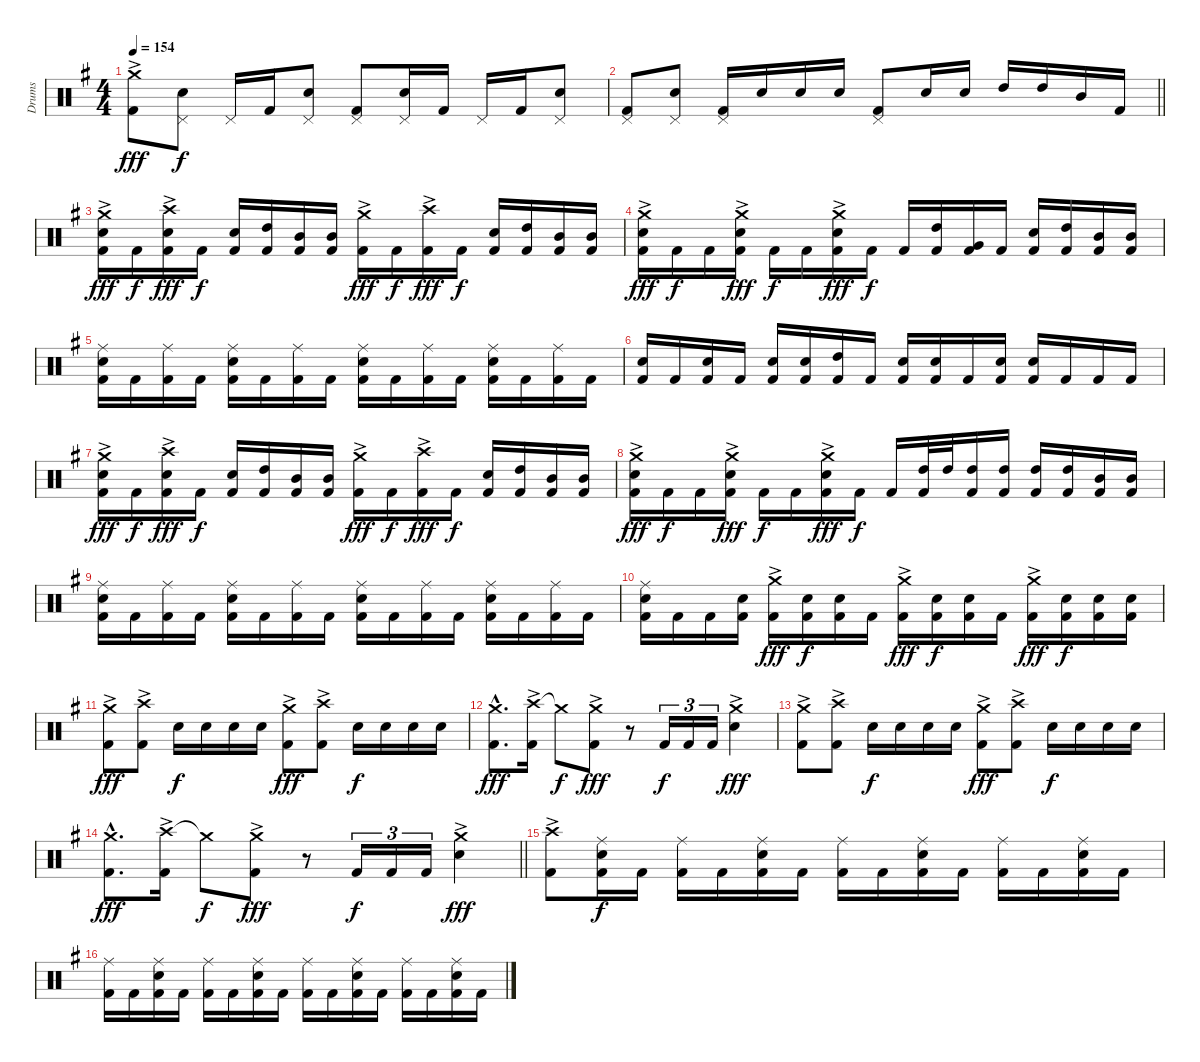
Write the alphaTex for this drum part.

\track ("Drums" "Drums") {instrument percussion}
\staff {score}
\articulation defaults
\ts (4 4)
\tempo 154
\clef neutral
\ks g
("Crash medium (hit)"{ac} "Kick (hit) 2"{ac}).8{dy fff} ("Pedal Hi-Hat (hit)" "Snare (hit) 2").8{dy f} "Pedal Hi-Hat (hit)".16 "Kick (hit) 2".16 ("Pedal Hi-Hat (hit)" "Snare (hit) 2").8 ("Pedal Hi-Hat (hit)" "Kick (hit) 2").8 ("Pedal Hi-Hat (hit)" "Snare (hit) 2").16 "Kick (hit) 2".16 "Pedal Hi-Hat (hit)".16 "Kick (hit) 2".16 ("Pedal Hi-Hat (hit)" "Snare (hit) 2").8 |
\barLineRight lightlight
("Pedal Hi-Hat (hit)" "Kick (hit) 2").8 ("Pedal Hi-Hat (hit)" "Snare (hit) 2").8 ("Pedal Hi-Hat (hit)" "Kick (hit) 2").16 "Snare (hit) 2".16 "Snare (hit) 2".16 "Snare (hit) 2".16 ("Pedal Hi-Hat (hit)" "Kick (hit) 2").8 "Snare (hit) 2".16 "Snare (hit) 2".16 "High Tom (hit)".16 "High Tom (hit)".16 "Mid Tom (hit)".16 "Kick (hit) 2".16 |
("Crash medium (hit)"{ac} "Snare (hit) 2" "Kick (hit) 2"{ac}).16{dy fff} "Kick (hit) 2".16{dy f} ("Crash high (hit)"{ac} "Snare (hit) 2" "Kick (hit) 2"{ac}).16{dy fff} "Kick (hit) 2".16{dy f} ("Snare (hit) 2" "Kick (hit) 2").16 ("High Tom (hit)" "Kick (hit) 2").16 ("Mid Tom (hit)" "Kick (hit) 2").16 ("Mid Tom (hit)" "Kick (hit) 2").16 ("Crash medium (hit)"{ac} "Kick (hit) 2"{ac}).16{dy fff} "Kick (hit) 2".16{dy f} ("Crash high (hit)"{ac} "Kick (hit) 2"{ac}).16{dy fff} "Kick (hit) 2".16{dy f} ("Snare (hit) 2" "Kick (hit) 2").16 ("High Tom (hit)" "Kick (hit) 2").16 ("Mid Tom (hit)" "Kick (hit) 2").16 ("Mid Tom (hit)" "Kick (hit) 2").16 |
("Crash medium (hit)"{ac} "Snare (hit) 2" "Kick (hit) 2"{ac}).16{dy fff} "Kick (hit) 2".16{dy f} "Kick (hit) 2".16 ("Crash medium (hit)"{ac} "Snare (hit) 2"{ac} "Kick (hit) 2"{ac}).16{dy fff} "Kick (hit) 2".16{dy f} "Kick (hit) 2".16 ("Crash medium (hit)"{ac} "Snare (hit) 2"{ac} "Kick (hit) 2").16{dy fff} "Kick (hit) 2".16{dy f} "Kick (hit) 2".16 ("High Tom (hit)" "Kick (hit) 2").16 ("Very Low Tom (hit)" "Kick (hit) 2").16 "Kick (hit) 2".16 ("Snare (hit) 2" "Kick (hit) 2").16 ("High Tom (hit)" "Kick (hit) 2").16 ("Mid Tom (hit)" "Kick (hit) 2").16 ("Mid Tom (hit)" "Kick (hit) 2").16 |
("Ride (middle)" "Snare (hit) 2" "Kick (hit) 2").16 "Kick (hit) 2".16 ("Ride (middle)" "Kick (hit) 2").16 "Kick (hit) 2".16 ("Ride (middle)" "Snare (hit) 2" "Kick (hit) 2").16 "Kick (hit) 2".16 ("Ride (middle)" "Kick (hit) 2").16 "Kick (hit) 2".16 ("Ride (middle)" "Snare (hit) 2" "Kick (hit) 2").16 "Kick (hit) 2".16 ("Ride (middle)" "Kick (hit) 2").16 "Kick (hit) 2".16 ("Ride (middle)" "Snare (hit) 2" "Kick (hit) 2").16 "Kick (hit) 2".16 ("Ride (middle)" "Kick (hit) 2").16 "Kick (hit) 2".16 |
("Snare (hit) 2" "Kick (hit) 2").16 "Kick (hit) 2".16 ("Snare (hit) 2" "Kick (hit) 2").16 "Kick (hit) 2".16 ("Snare (hit) 2" "Kick (hit) 2").16 ("Snare (hit) 2" "Kick (hit) 2").16 ("High Tom (hit)" "Kick (hit) 2").16 "Kick (hit) 2".16 ("Snare (hit) 2" "Kick (hit) 2").16 ("Snare (hit) 2" "Kick (hit) 2").16 "Kick (hit) 2".16 ("Snare (hit) 2" "Kick (hit) 2").16 ("Snare (hit) 2" "Kick (hit) 2").16 "Kick (hit) 2".16 "Kick (hit) 2".16 "Kick (hit) 2".16 |
("Crash medium (hit)"{ac} "Snare (hit) 2" "Kick (hit) 2"{ac}).16{dy fff} "Kick (hit) 2".16{dy f} ("Crash high (hit)"{ac} "Snare (hit) 2" "Kick (hit) 2"{ac}).16{dy fff} "Kick (hit) 2".16{dy f} ("Snare (hit) 2" "Kick (hit) 2").16 ("High Tom (hit)" "Kick (hit) 2").16 ("Mid Tom (hit)" "Kick (hit) 2").16 ("Mid Tom (hit)" "Kick (hit) 2").16 ("Crash medium (hit)"{ac} "Kick (hit) 2"{ac}).16{dy fff} "Kick (hit) 2".16{dy f} ("Crash high (hit)"{ac} "Kick (hit) 2"{ac}).16{dy fff} "Kick (hit) 2".16{dy f} ("Snare (hit) 2" "Kick (hit) 2").16 ("High Tom (hit)" "Kick (hit) 2").16 ("Mid Tom (hit)" "Kick (hit) 2").16 ("Mid Tom (hit)" "Kick (hit) 2").16 |
("Crash medium (hit)"{ac} "Snare (hit) 2" "Kick (hit) 2"{ac}).16{dy fff} "Kick (hit) 2".16{dy f} "Kick (hit) 2".16 ("Crash medium (hit)"{ac} "Snare (hit) 2"{ac} "Kick (hit) 2"{ac}).16{dy fff} "Kick (hit) 2".16{dy f} "Kick (hit) 2".16 ("Crash medium (hit)" "Snare (hit) 2"{ac} "Kick (hit) 2").16{dy fff} "Kick (hit) 2".16{dy f} "Kick (hit) 2".16 ("High Tom (hit)" "Kick (hit) 2").32 "High Tom (hit)".32 ("High Tom (hit)" "Kick (hit) 2").16 ("High Tom (hit)" "Kick (hit) 2").16 ("High Tom (hit)" "Kick (hit) 2").16 ("High Tom (hit)" "Kick (hit) 2").16 ("Mid Tom (hit)" "Kick (hit) 2").16 ("Mid Tom (hit)" "Kick (hit) 2").16 |
("Ride (middle)" "Snare (hit) 2" "Kick (hit) 2").16 "Kick (hit) 2".16 ("Ride (middle)" "Kick (hit) 2").16 "Kick (hit) 2".16 ("Ride (middle)" "Snare (hit) 2" "Kick (hit) 2").16 "Kick (hit) 2".16 ("Ride (middle)" "Kick (hit) 2").16 "Kick (hit) 2".16 ("Ride (middle)" "Snare (hit) 2" "Kick (hit) 2").16 "Kick (hit) 2".16 ("Ride (middle)" "Kick (hit) 2").16 "Kick (hit) 2".16 ("Ride (middle)" "Snare (hit) 2" "Kick (hit) 2").16 "Kick (hit) 2".16 ("Ride (middle)" "Kick (hit) 2").16 "Kick (hit) 2".16 |
("Ride (middle)" "Snare (hit) 2" "Kick (hit) 2").16 "Kick (hit) 2".16 "Kick (hit) 2".16 ("Snare (hit) 2" "Kick (hit) 2").16 ("Crash medium (hit)"{ac} "Kick (hit) 2").16{dy fff} ("Snare (hit) 2" "Kick (hit) 2").16{dy f} ("Snare (hit) 2" "Kick (hit) 2").16 "Kick (hit) 2".16 ("Crash medium (hit)"{ac} "Kick (hit) 2").16{dy fff} ("Snare (hit) 2" "Kick (hit) 2").16{dy f} ("Snare (hit) 2" "Kick (hit) 2").16 "Kick (hit) 2".16 ("Crash medium (hit)"{ac} "Kick (hit) 2").16{dy fff} ("Snare (hit) 2" "Kick (hit) 2").16{dy f} ("Snare (hit) 2" "Kick (hit) 2").16 ("Snare (hit) 2" "Kick (hit) 2").16 |
("Crash medium (hit)"{ac} "Kick (hit) 2"{ac}).8{dy fff} ("Crash high (hit)"{ac} "Kick (hit) 2"{ac}).8 "Snare (hit) 2".16{dy f} "Snare (hit) 2".16 "Snare (hit) 2".16 "Snare (hit) 2".16 ("Crash medium (hit)"{ac} "Kick (hit) 2"{ac}).8{dy fff} ("Crash high (hit)"{ac} "Kick (hit) 2"{ac}).8 "Snare (hit) 2".16{dy f} "Snare (hit) 2".16 "Snare (hit) 2".16 "Snare (hit) 2".16 |
("Crash medium (hit)"{hac} "Kick (hit) 2"{hac}).8{d dy fff} ("Crash high (hit)"{ac} "Kick (hit) 2"{ac}).16 "Crash medium (hit)"{t}.8{dy f} ("Crash medium (hit)"{ac} "Kick (hit) 2"{ac}).8{dy fff} r.8 "Kick (hit) 2".16{tu (3 2) dy f} "Kick (hit) 2".16{tu (3 2)} "Kick (hit) 2".16{tu (3 2)} ("Crash medium (hit)"{ac} "Snare (hit) 2"{ac}).4{dy fff} |
("Crash medium (hit)"{ac} "Kick (hit) 2"{ac}).8 ("Crash high (hit)"{ac} "Kick (hit) 2"{ac}).8 "Snare (hit) 2".16{dy f} "Snare (hit) 2".16 "Snare (hit) 2".16 "Snare (hit) 2".16 ("Crash medium (hit)"{ac} "Kick (hit) 2"{ac}).8{dy fff} ("Crash high (hit)"{ac} "Kick (hit) 2"{ac}).8 "Snare (hit) 2".16{dy f} "Snare (hit) 2".16 "Snare (hit) 2".16 "Snare (hit) 2".16 |
\barLineRight lightlight
("Crash medium (hit)"{hac} "Kick (hit) 2"{hac}).8{d dy fff} ("Crash high (hit)"{ac} "Kick (hit) 2"{ac}).16 "Crash medium (hit)"{t}.8{dy f} ("Crash medium (hit)"{ac} "Kick (hit) 2"{ac}).8{dy fff} r.8 "Kick (hit) 2".16{tu (3 2) dy f} "Kick (hit) 2".16{tu (3 2)} "Kick (hit) 2".16{tu (3 2)} ("Crash medium (hit)"{ac} "Snare (hit) 2"{ac}).4{dy fff} |
("Crash high (hit)"{ac} "Kick (hit) 2").8 ("Ride (middle)" "Snare (hit) 2" "Kick (hit) 2").16{dy f} "Kick (hit) 2".16 ("Ride (middle)" "Kick (hit) 2").16 "Kick (hit) 2".16 ("Ride (middle)" "Snare (hit) 2" "Kick (hit) 2").16 "Kick (hit) 2".16 ("Ride (middle)" "Kick (hit) 2").16 "Kick (hit) 2".16 ("Ride (middle)" "Snare (hit) 2" "Kick (hit) 2").16 "Kick (hit) 2".16 ("Ride (middle)" "Kick (hit) 2").16 "Kick (hit) 2".16 ("Ride (middle)" "Snare (hit) 2" "Kick (hit) 2").16 "Kick (hit) 2".16 |
("Ride (middle)" "Kick (hit) 2").16 "Kick (hit) 2".16 ("Ride (middle)" "Snare (hit) 2" "Kick (hit) 2").16 "Kick (hit) 2".16 ("Ride (middle)" "Kick (hit) 2").16 "Kick (hit) 2".16 ("Ride (middle)" "Snare (hit) 2" "Kick (hit) 2").16 "Kick (hit) 2".16 ("Ride (middle)" "Kick (hit) 2").16 "Kick (hit) 2".16 ("Ride (middle)" "Snare (hit) 2" "Kick (hit) 2").16 "Kick (hit) 2".16 ("Ride (middle)" "Kick (hit) 2").16 "Kick (hit) 2".16 ("Ride (middle)" "Snare (hit) 2" "Kick (hit) 2").16 "Kick (hit) 2".16
